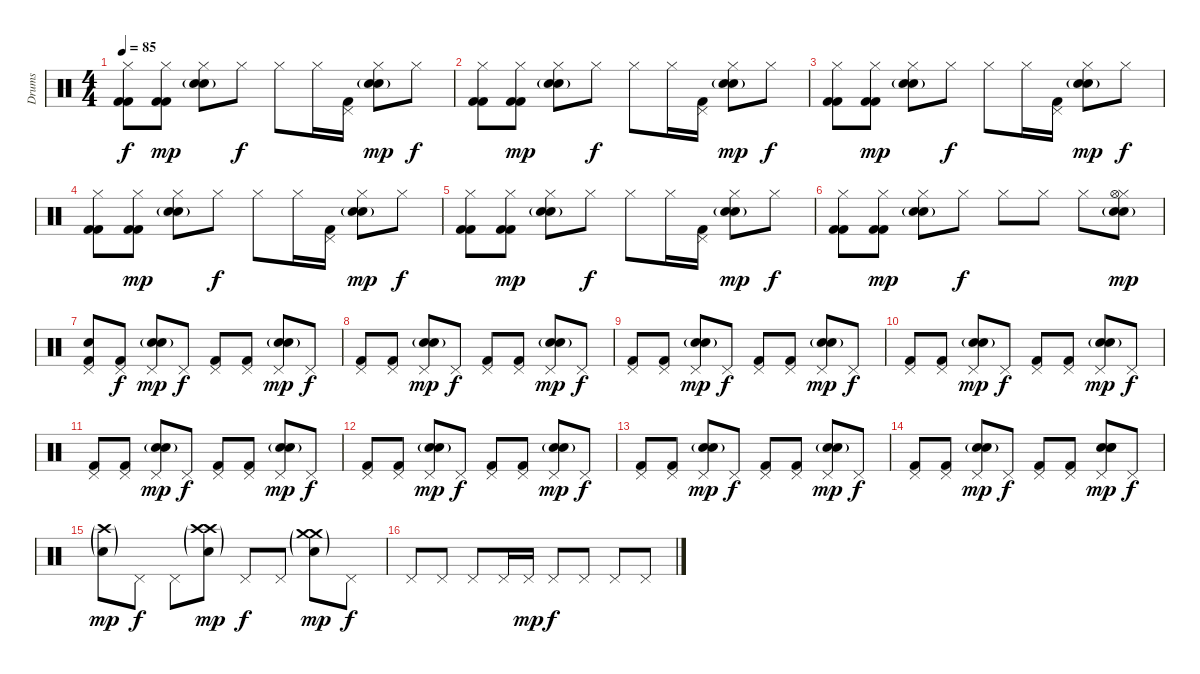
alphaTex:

\track ("Drums" "Drums") {instrument percussion}
\staff {score}
\articulation defaults
\ts (4 4)
\tempo 85
\clef neutral
\ks c
("Hi-Hat (closed)" "Kick (hit) 2" "Kick (hit) 2").8{dy f} ("Hi-Hat (closed)" "Kick (hit) 2" "Kick (hit) 2").8{dy mp} ("Hi-Hat (closed)" "Electric Snare (hit)" "Snare (hit) 2"{g}).8 "Hi-Hat (closed)".8{dy f} "Hi-Hat (closed)".8 "Hi-Hat (closed)".16 ("Pedal Hi-Hat (hit)" "Kick (hit) 2").16 ("Hi-Hat (closed)" "Electric Snare (hit)" "Snare (hit) 2"{g}).8{dy mp} "Hi-Hat (closed)".8{dy f} |
("Hi-Hat (closed)" "Kick (hit) 2" "Kick (hit) 2").8 ("Hi-Hat (closed)" "Kick (hit) 2" "Kick (hit) 2").8{dy mp} ("Hi-Hat (closed)" "Electric Snare (hit)" "Snare (hit) 2"{g}).8 "Hi-Hat (closed)".8{dy f} "Hi-Hat (closed)".8 "Hi-Hat (closed)".16 ("Pedal Hi-Hat (hit)" "Kick (hit) 2").16 ("Hi-Hat (closed)" "Electric Snare (hit)" "Snare (hit) 2"{g}).8{dy mp} "Hi-Hat (closed)".8{dy f} |
("Hi-Hat (closed)" "Kick (hit) 2" "Kick (hit) 2").8 ("Hi-Hat (closed)" "Kick (hit) 2" "Kick (hit) 2").8{dy mp} ("Hi-Hat (closed)" "Electric Snare (hit)" "Snare (hit) 2"{g}).8 "Hi-Hat (closed)".8{dy f} "Hi-Hat (closed)".8 "Hi-Hat (closed)".16 ("Pedal Hi-Hat (hit)" "Kick (hit) 2").16 ("Hi-Hat (closed)" "Electric Snare (hit)" "Snare (hit) 2"{g}).8{dy mp} "Hi-Hat (closed)".8{dy f} |
("Hi-Hat (closed)" "Kick (hit) 2" "Kick (hit) 2").8 ("Hi-Hat (closed)" "Kick (hit) 2" "Kick (hit) 2").8{dy mp} ("Hi-Hat (closed)" "Electric Snare (hit)" "Snare (hit) 2"{g}).8 "Hi-Hat (closed)".8{dy f} "Hi-Hat (closed)".8 "Hi-Hat (closed)".16 ("Pedal Hi-Hat (hit)" "Kick (hit) 2").16 ("Hi-Hat (closed)" "Electric Snare (hit)" "Snare (hit) 2"{g}).8{dy mp} "Hi-Hat (closed)".8{dy f} |
("Hi-Hat (closed)" "Kick (hit) 2" "Kick (hit) 2").8 ("Hi-Hat (closed)" "Kick (hit) 2" "Kick (hit) 2").8{dy mp} ("Hi-Hat (closed)" "Electric Snare (hit)" "Snare (hit) 2"{g}).8 "Hi-Hat (closed)".8{dy f} "Hi-Hat (closed)".8 "Hi-Hat (closed)".16 ("Pedal Hi-Hat (hit)" "Kick (hit) 2").16 ("Hi-Hat (closed)" "Electric Snare (hit)" "Snare (hit) 2"{g}).8{dy mp} "Hi-Hat (closed)".8{dy f} |
("Hi-Hat (closed)" "Kick (hit) 2" "Kick (hit) 2").8 ("Hi-Hat (closed)" "Kick (hit) 2" "Kick (hit) 2").8{dy mp} ("Hi-Hat (closed)" "Electric Snare (hit)" "Snare (hit) 2"{g}).8 "Hi-Hat (closed)".8{dy f} "Hi-Hat (closed)".8 "Hi-Hat (closed)".8 "Hi-Hat (closed)".8 ("Hi-Hat (closed)" "Electric Snare (hit)" "Snare (hit) 2"{g} "Hi-Hat (open)").8{dy mp} |
("Pedal Hi-Hat (hit)" "Electric Snare (hit)" "Kick (hit) 2").8 ("Pedal Hi-Hat (hit)" "Kick (hit) 2").8{dy f} ("Pedal Hi-Hat (hit)" "Electric Snare (hit)" "Snare (hit) 2"{g}).8{dy mp} "Pedal Hi-Hat (hit)".8{dy f} ("Pedal Hi-Hat (hit)" "Kick (hit) 2").8 ("Pedal Hi-Hat (hit)" "Kick (hit) 2").8 ("Pedal Hi-Hat (hit)" "Electric Snare (hit)" "Snare (hit) 2"{g}).8{dy mp} "Pedal Hi-Hat (hit)".8{dy f} |
("Pedal Hi-Hat (hit)" "Kick (hit) 2").8 ("Pedal Hi-Hat (hit)" "Kick (hit) 2").8 ("Pedal Hi-Hat (hit)" "Electric Snare (hit)" "Snare (hit) 2"{g}).8{dy mp} "Pedal Hi-Hat (hit)".8{dy f} ("Pedal Hi-Hat (hit)" "Kick (hit) 2").8 ("Pedal Hi-Hat (hit)" "Kick (hit) 2").8 ("Pedal Hi-Hat (hit)" "Electric Snare (hit)" "Snare (hit) 2"{g}).8{dy mp} "Pedal Hi-Hat (hit)".8{dy f} |
("Pedal Hi-Hat (hit)" "Kick (hit) 2").8 ("Pedal Hi-Hat (hit)" "Kick (hit) 2").8 ("Pedal Hi-Hat (hit)" "Electric Snare (hit)" "Snare (hit) 2"{g}).8{dy mp} "Pedal Hi-Hat (hit)".8{dy f} ("Pedal Hi-Hat (hit)" "Kick (hit) 2").8 ("Pedal Hi-Hat (hit)" "Kick (hit) 2").8 ("Pedal Hi-Hat (hit)" "Electric Snare (hit)" "Snare (hit) 2"{g}).8{dy mp} "Pedal Hi-Hat (hit)".8{dy f} |
("Pedal Hi-Hat (hit)" "Kick (hit) 2").8 ("Pedal Hi-Hat (hit)" "Kick (hit) 2").8 ("Pedal Hi-Hat (hit)" "Electric Snare (hit)" "Snare (hit) 2"{g}).8{dy mp} "Pedal Hi-Hat (hit)".8{dy f} ("Pedal Hi-Hat (hit)" "Kick (hit) 2").8 ("Pedal Hi-Hat (hit)" "Kick (hit) 2").8 ("Pedal Hi-Hat (hit)" "Electric Snare (hit)" "Snare (hit) 2"{g}).8{dy mp} "Pedal Hi-Hat (hit)".8{dy f} |
("Pedal Hi-Hat (hit)" "Kick (hit) 2").8 ("Pedal Hi-Hat (hit)" "Kick (hit) 2").8 ("Pedal Hi-Hat (hit)" "Electric Snare (hit)" "Snare (hit) 2"{g}).8{dy mp} "Pedal Hi-Hat (hit)".8{dy f} ("Pedal Hi-Hat (hit)" "Kick (hit) 2").8 ("Pedal Hi-Hat (hit)" "Kick (hit) 2").8 ("Pedal Hi-Hat (hit)" "Electric Snare (hit)" "Snare (hit) 2"{g}).8{dy mp} "Pedal Hi-Hat (hit)".8{dy f} |
("Pedal Hi-Hat (hit)" "Kick (hit) 2").8 ("Pedal Hi-Hat (hit)" "Kick (hit) 2").8 ("Pedal Hi-Hat (hit)" "Electric Snare (hit)" "Snare (hit) 2"{g}).8{dy mp} "Pedal Hi-Hat (hit)".8{dy f} ("Pedal Hi-Hat (hit)" "Kick (hit) 2").8 ("Pedal Hi-Hat (hit)" "Kick (hit) 2").8 ("Pedal Hi-Hat (hit)" "Electric Snare (hit)" "Snare (hit) 2"{g}).8{dy mp} "Pedal Hi-Hat (hit)".8{dy f} |
("Pedal Hi-Hat (hit)" "Kick (hit) 2").8 ("Pedal Hi-Hat (hit)" "Kick (hit) 2").8 ("Pedal Hi-Hat (hit)" "Electric Snare (hit)" "Snare (hit) 2"{g}).8{dy mp} "Pedal Hi-Hat (hit)".8{dy f} ("Pedal Hi-Hat (hit)" "Kick (hit) 2").8 ("Pedal Hi-Hat (hit)" "Kick (hit) 2").8 ("Pedal Hi-Hat (hit)" "Electric Snare (hit)" "Snare (hit) 2"{g}).8{dy mp} "Pedal Hi-Hat (hit)".8{dy f} |
("Pedal Hi-Hat (hit)" "Kick (hit) 2").8 ("Pedal Hi-Hat (hit)" "Kick (hit) 2").8 ("Pedal Hi-Hat (hit)" "Electric Snare (hit)" "Snare (hit) 2"{g}).8{dy mp} "Pedal Hi-Hat (hit)".8{dy f} ("Pedal Hi-Hat (hit)" "Kick (hit) 2").8 ("Pedal Hi-Hat (hit)" "Kick (hit) 2").8 ("Pedal Hi-Hat (hit)" "Electric Snare (hit)" "Electric Snare (hit)" "Electric Snare (hit)").8{dy mp} "Pedal Hi-Hat (hit)".8{dy f} |
("Crash high (hit)"{g} "Electric Snare (hit)"{g}).8{dy mp} "Pedal Hi-Hat (hit)".8{dy f} "Pedal Hi-Hat (hit)".8 ("Crash high (hit)"{g} "Electric Snare (hit)"{g} "Crash high (hit)"{g}).8{dy mp} "Pedal Hi-Hat (hit)".8{dy f} "Pedal Hi-Hat (hit)".8 ("Crash medium (hit)"{g} "Electric Snare (hit)"{g} "Crash medium (hit)"{g}).8{dy mp} "Pedal Hi-Hat (hit)".8{dy f} |
"Pedal Hi-Hat (hit)".8 "Pedal Hi-Hat (hit)".8 "Pedal Hi-Hat (hit)".8 "Pedal Hi-Hat (hit)".16 "Pedal Hi-Hat (hit)".16{dy mp} "Pedal Hi-Hat (hit)".8{dy f} "Pedal Hi-Hat (hit)".8 "Pedal Hi-Hat (hit)".8 "Pedal Hi-Hat (hit)".8
